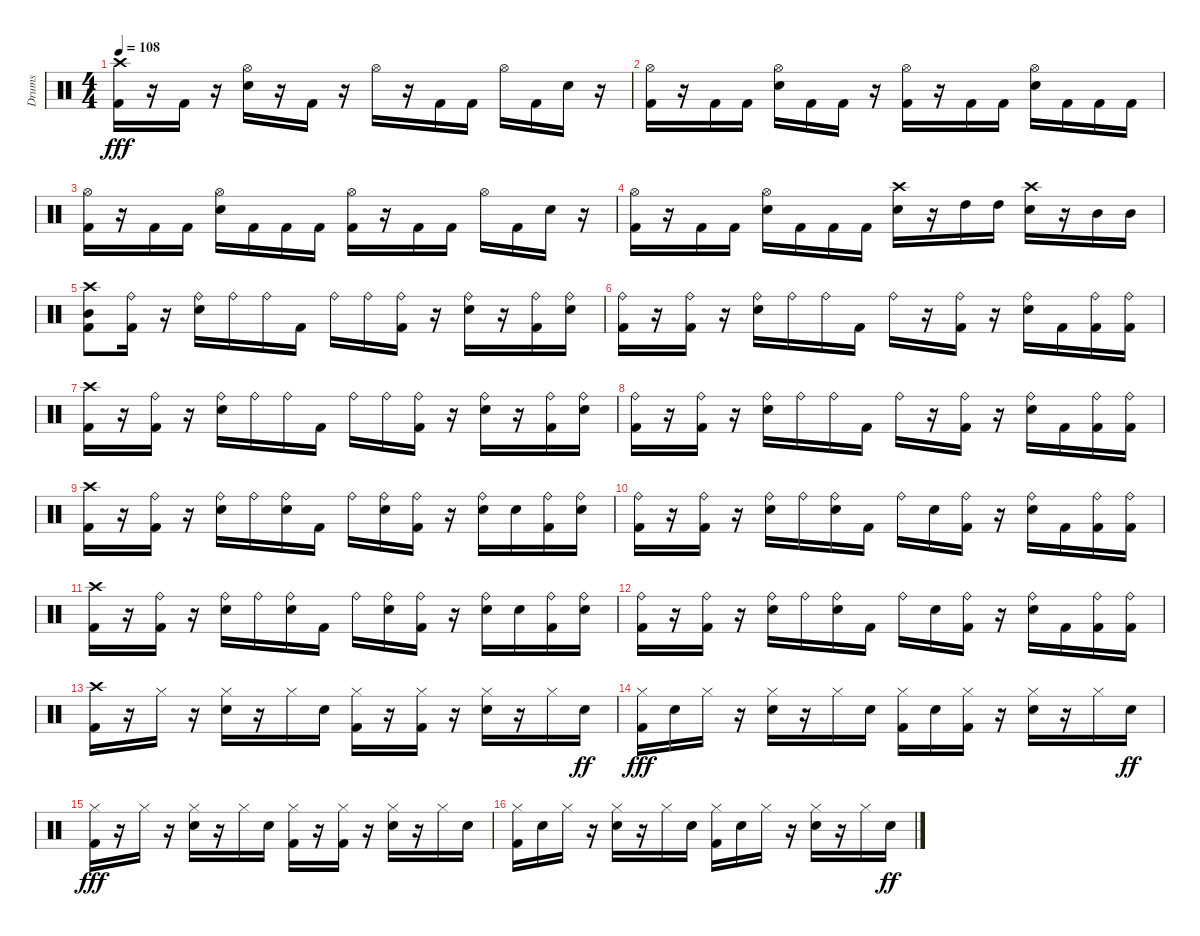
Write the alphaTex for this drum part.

\track ("Drums " "Drums ") {instrument percussion}
\staff {score}
\articulation defaults
\ts (4 4)
\tempo 108
\clef neutral
\ks c
("Kick (hit) 2" "Crash high (hit)").16{dy fff} r.16 "Kick (hit) 2".16 r.16 ("Snare (hit) 2" "Hi-Hat (open)").16 r.16 "Kick (hit) 2".16 r.16 "Hi-Hat (open)".16 r.16 "Kick (hit) 2".16 "Kick (hit) 2".16 "Hi-Hat (open)".16 "Kick (hit) 2".16 "Snare (hit) 2".16 r.16 |
("Kick (hit) 2" "Hi-Hat (open)").16 r.16 "Kick (hit) 2".16 "Kick (hit) 2".16 ("Snare (hit) 2" "Hi-Hat (open)").16 "Kick (hit) 2".16 "Kick (hit) 2".16 r.16 ("Kick (hit) 2" "Hi-Hat (open)").16 r.16 "Kick (hit) 2".16 "Kick (hit) 2".16 ("Snare (hit) 2" "Hi-Hat (open)").16 "Kick (hit) 2".16 "Kick (hit) 2".16 "Kick (hit) 2".16 |
("Kick (hit) 2" "Hi-Hat (open)").16 r.16 "Kick (hit) 2".16 "Kick (hit) 2".16 ("Snare (hit) 2" "Hi-Hat (open)").16 "Kick (hit) 2".16 "Kick (hit) 2".16 "Kick (hit) 2".16 ("Kick (hit) 2" "Hi-Hat (open)").16 r.16 "Kick (hit) 2".16 "Kick (hit) 2".16 "Hi-Hat (open)".16 "Kick (hit) 2".16 "Snare (hit) 2".16 r.16 |
("Kick (hit) 2" "Hi-Hat (open)").16 r.16 "Kick (hit) 2".16 "Kick (hit) 2".16 ("Snare (hit) 2" "Hi-Hat (open)").16 "Kick (hit) 2".16 "Kick (hit) 2".16 "Kick (hit) 2".16 ("Snare (hit) 2" "Crash high (hit)").16 r.16 "High Tom (hit)".16 "High Tom (hit)".16 ("Snare (hit) 2" "Crash high (hit)").16 r.16 "Mid Tom (hit)".16 "Mid Tom (hit)".16 |
("Kick (hit) 2" "Mid Tom (hit)" "Crash high (hit)").8 ("Kick (hit) 2" "Ride (bell)").16 r.16 ("Snare (hit) 2" "Ride (bell)").16 "Ride (bell)".16 "Ride (bell)".16 "Kick (hit) 2".16 "Ride (bell)".16 "Ride (bell)".16 ("Kick (hit) 2" "Ride (bell)").16 r.16 ("Snare (hit) 2" "Ride (bell)").16 r.16 ("Kick (hit) 2" "Ride (bell)").16 ("Snare (hit) 2" "Ride (bell)").16 |
("Kick (hit) 2" "Ride (bell)").16 r.16 ("Kick (hit) 2" "Ride (bell)").16 r.16 ("Snare (hit) 2" "Ride (bell)").16 "Ride (bell)".16 "Ride (bell)".16 "Kick (hit) 2".16 "Ride (bell)".16 r.16 ("Kick (hit) 2" "Ride (bell)").16 r.16 ("Snare (hit) 2" "Ride (bell)").16 "Kick (hit) 2".16 ("Kick (hit) 2" "Ride (bell)").16 ("Kick (hit) 2" "Ride (bell)").16 |
("Kick (hit) 2" "Crash high (hit)").16 r.16 ("Kick (hit) 2" "Ride (bell)").16 r.16 ("Snare (hit) 2" "Ride (bell)").16 "Ride (bell)".16 "Ride (bell)".16 "Kick (hit) 2".16 "Ride (bell)".16 "Ride (bell)".16 ("Kick (hit) 2" "Ride (bell)").16 r.16 ("Snare (hit) 2" "Ride (bell)").16 r.16 ("Kick (hit) 2" "Ride (bell)").16 ("Snare (hit) 2" "Ride (bell)").16 |
("Kick (hit) 2" "Ride (bell)").16 r.16 ("Kick (hit) 2" "Ride (bell)").16 r.16 ("Snare (hit) 2" "Ride (bell)").16 "Ride (bell)".16 "Ride (bell)".16 "Kick (hit) 2".16 "Ride (bell)".16 r.16 ("Kick (hit) 2" "Ride (bell)").16 r.16 ("Snare (hit) 2" "Ride (bell)").16 "Kick (hit) 2".16 ("Kick (hit) 2" "Ride (bell)").16 ("Kick (hit) 2" "Ride (bell)").16 |
("Kick (hit) 2" "Crash high (hit)").16 r.16 ("Kick (hit) 2" "Ride (bell)").16 r.16 ("Snare (hit) 2" "Ride (bell)").16 "Ride (bell)".16 ("Snare (hit) 2" "Ride (bell)").16 "Kick (hit) 2".16 "Ride (bell)".16 ("Snare (hit) 2" "Ride (bell)").16 ("Kick (hit) 2" "Ride (bell)").16 r.16 ("Snare (hit) 2" "Ride (bell)").16 "Snare (hit) 2".16 ("Kick (hit) 2" "Ride (bell)").16 ("Snare (hit) 2" "Ride (bell)").16 |
("Kick (hit) 2" "Ride (bell)").16 r.16 ("Kick (hit) 2" "Ride (bell)").16 r.16 ("Snare (hit) 2" "Ride (bell)").16 "Ride (bell)".16 ("Snare (hit) 2" "Ride (bell)").16 "Kick (hit) 2".16 "Ride (bell)".16 "Snare (hit) 2".16 ("Kick (hit) 2" "Ride (bell)").16 r.16 ("Snare (hit) 2" "Ride (bell)").16 "Kick (hit) 2".16 ("Kick (hit) 2" "Ride (bell)").16 ("Kick (hit) 2" "Ride (bell)").16 |
("Kick (hit) 2" "Crash high (hit)").16 r.16 ("Kick (hit) 2" "Ride (bell)").16 r.16 ("Snare (hit) 2" "Ride (bell)").16 "Ride (bell)".16 ("Snare (hit) 2" "Ride (bell)").16 "Kick (hit) 2".16 "Ride (bell)".16 ("Snare (hit) 2" "Ride (bell)").16 ("Kick (hit) 2" "Ride (bell)").16 r.16 ("Snare (hit) 2" "Ride (bell)").16 "Snare (hit) 2".16 ("Kick (hit) 2" "Ride (bell)").16 ("Snare (hit) 2" "Ride (bell)").16 |
("Kick (hit) 2" "Ride (bell)").16 r.16 ("Kick (hit) 2" "Ride (bell)").16 r.16 ("Snare (hit) 2" "Ride (bell)").16 "Ride (bell)".16 ("Snare (hit) 2" "Ride (bell)").16 "Kick (hit) 2".16 "Ride (bell)".16 "Snare (hit) 2".16 ("Kick (hit) 2" "Ride (bell)").16 r.16 ("Snare (hit) 2" "Ride (bell)").16 "Kick (hit) 2".16 ("Kick (hit) 2" "Ride (bell)").16 ("Kick (hit) 2" "Ride (bell)").16 |
("Kick (hit) 2" "Crash high (hit)").16 r.16 "Hi-Hat (closed)".16 r.16 ("Snare (hit) 2" "Hi-Hat (closed)").16 r.16 "Hi-Hat (closed)".16 "Snare (hit) 2".16 ("Kick (hit) 2" "Hi-Hat (closed)").16 r.16 ("Kick (hit) 2" "Hi-Hat (closed)").16 r.16 ("Snare (hit) 2" "Hi-Hat (closed)").16 r.16 "Hi-Hat (closed)".16 "Snare (hit) 2".16{dy ff} |
("Kick (hit) 2" "Hi-Hat (closed)").16{dy fff} "Snare (hit) 2".16 "Hi-Hat (closed)".16 r.16 ("Snare (hit) 2" "Hi-Hat (closed)").16 r.16 "Hi-Hat (closed)".16 "Snare (hit) 2".16 ("Kick (hit) 2" "Hi-Hat (closed)").16 "Snare (hit) 2".16 ("Kick (hit) 2" "Hi-Hat (closed)").16 r.16 ("Snare (hit) 2" "Hi-Hat (closed)").16 r.16 "Hi-Hat (closed)".16 "Snare (hit) 2".16{dy ff} |
("Kick (hit) 2" "Hi-Hat (closed)").16{dy fff} r.16 "Hi-Hat (closed)".16 r.16 ("Snare (hit) 2" "Hi-Hat (closed)").16 r.16 "Hi-Hat (closed)".16 "Snare (hit) 2".16 ("Kick (hit) 2" "Hi-Hat (closed)").16 r.16 ("Kick (hit) 2" "Hi-Hat (closed)").16 r.16 ("Snare (hit) 2" "Hi-Hat (closed)").16 r.16 "Hi-Hat (closed)".16 "Snare (hit) 2".16 |
("Kick (hit) 2" "Hi-Hat (closed)").16 "Snare (hit) 2".16 "Hi-Hat (closed)".16 r.16 ("Snare (hit) 2" "Hi-Hat (closed)").16 r.16 "Hi-Hat (closed)".16 "Snare (hit) 2".16 ("Kick (hit) 2" "Hi-Hat (closed)").16 "Snare (hit) 2".16 "Hi-Hat (closed)".16 r.16 ("Snare (hit) 2" "Hi-Hat (closed)").16 r.16 "Hi-Hat (closed)".16 "Snare (hit) 2".16{dy ff}
